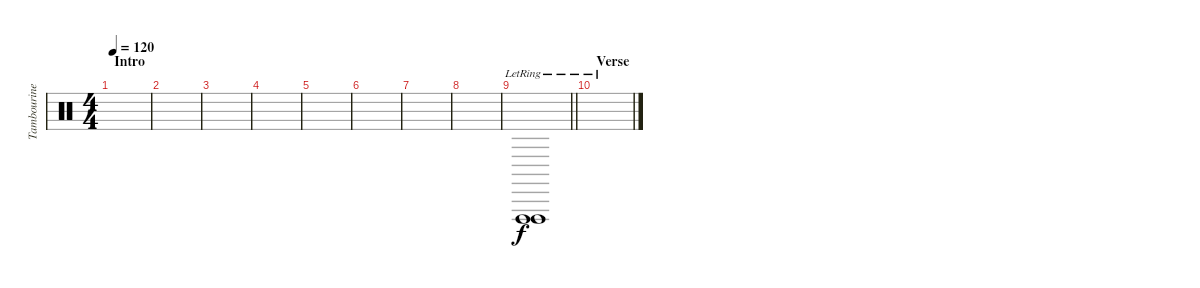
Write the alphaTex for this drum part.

\track ("Tambourine" "Tambourine") {instrument percussion}
\staff {score}
\articulation defaults
\ts (4 4)
\section ("" "Intro")
\tempo 120
\clef neutral
\ks c
|
|
|
|
|
|
|
|
\barLineRight lightlight
("Vibraslap (hit)"{lr} "Vibraslap (hit)"{lr}).1 |
\section ("" "Verse")
